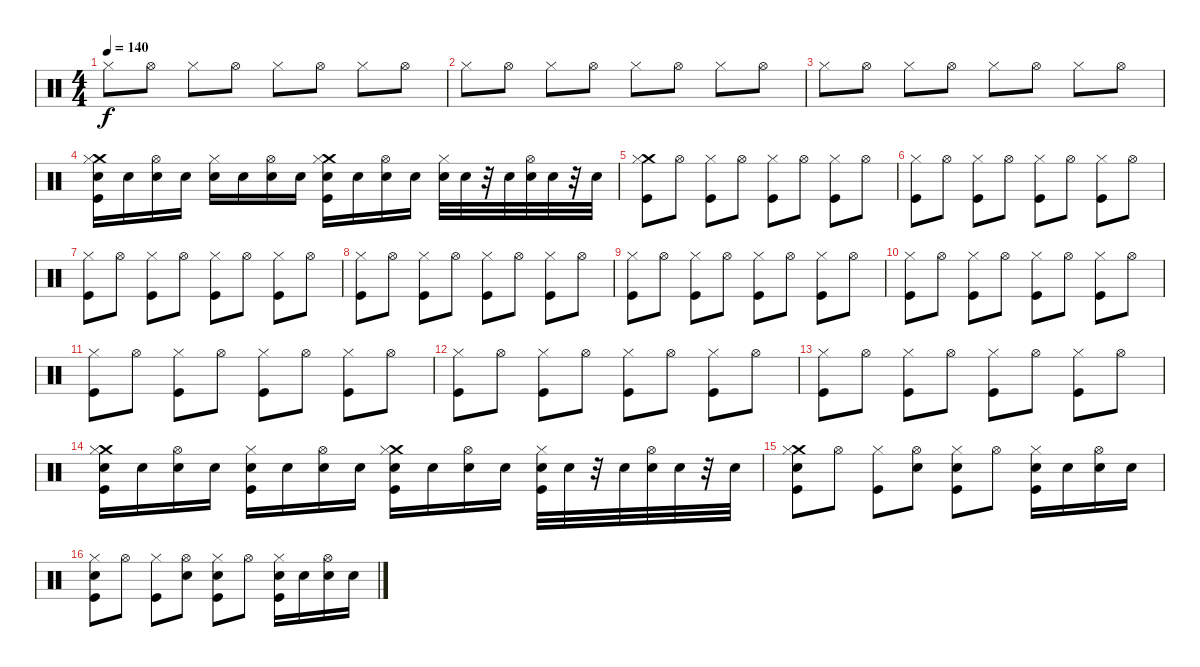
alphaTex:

\track "" {instrument percussion}
\staff {score}
\articulation defaults
\ts (4 4)
\tempo 140
\clef neutral
\ks c "Hi-Hat (closed)".8{dy f} "Hi-Hat (open)".8 "Hi-Hat (closed)".8 "Hi-Hat (open)".8 "Hi-Hat (closed)".8 "Hi-Hat (open)".8 "Hi-Hat (closed)".8 "Hi-Hat (open)".8
|
"Hi-Hat (closed)".8 "Hi-Hat (open)".8 "Hi-Hat (closed)".8 "Hi-Hat (open)".8 "Hi-Hat (closed)".8 "Hi-Hat (open)".8 "Hi-Hat (closed)".8 "Hi-Hat (open)".8 |
"Hi-Hat (closed)".8 "Hi-Hat (open)".8 "Hi-Hat (closed)".8 "Hi-Hat (open)".8 "Hi-Hat (closed)".8 "Hi-Hat (open)".8 "Hi-Hat (closed)".8 "Hi-Hat (open)".8 |
("Kick (hit)" "Crash medium (hit)" "Snare (hit) 2" "Hi-Hat (closed)").16 "Snare (hit) 2".16 ("Snare (hit) 2" "Hi-Hat (open)").16 "Snare (hit) 2".16 ("Snare (hit) 2" "Hi-Hat (closed)").16 "Snare (hit) 2".16 ("Snare (hit) 2" "Hi-Hat (open)").16 "Snare (hit) 2".16 ("Kick (hit)" "Crash medium (hit)" "Snare (hit) 2" "Hi-Hat (closed)").16 "Snare (hit) 2".16 ("Snare (hit) 2" "Hi-Hat (open)").16 "Snare (hit) 2".16 ("Snare (hit) 2" "Hi-Hat (closed)").32 "Snare (hit) 2".32 r.32 "Snare (hit) 2".32 ("Snare (hit) 2" "Hi-Hat (open)").32 "Snare (hit) 2".32 r.32 "Snare (hit) 2".32 |
("Crash medium (hit)" "Hi-Hat (closed)" "Kick (hit)").8 "Hi-Hat (open)".8 ("Hi-Hat (closed)" "Kick (hit)").8 "Hi-Hat (open)".8 ("Hi-Hat (closed)" "Kick (hit)").8 "Hi-Hat (open)".8 ("Hi-Hat (closed)" "Kick (hit)").8 "Hi-Hat (open)".8 |
("Hi-Hat (closed)" "Kick (hit)").8 "Hi-Hat (open)".8 ("Hi-Hat (closed)" "Kick (hit)").8 "Hi-Hat (open)".8 ("Hi-Hat (closed)" "Kick (hit)").8 "Hi-Hat (open)".8 ("Hi-Hat (closed)" "Kick (hit)").8 "Hi-Hat (open)".8 |
("Hi-Hat (closed)" "Kick (hit)").8 "Hi-Hat (open)".8 ("Hi-Hat (closed)" "Kick (hit)").8 "Hi-Hat (open)".8 ("Hi-Hat (closed)" "Kick (hit)").8 "Hi-Hat (open)".8 ("Hi-Hat (closed)" "Kick (hit)").8 "Hi-Hat (open)".8 |
("Hi-Hat (closed)" "Kick (hit)").8 "Hi-Hat (open)".8 ("Hi-Hat (closed)" "Kick (hit)").8 "Hi-Hat (open)".8 ("Hi-Hat (closed)" "Kick (hit)").8 "Hi-Hat (open)".8 ("Hi-Hat (closed)" "Kick (hit)").8 "Hi-Hat (open)".8 |
("Hi-Hat (closed)" "Kick (hit)").8 "Hi-Hat (open)".8 ("Hi-Hat (closed)" "Kick (hit)").8 "Hi-Hat (open)".8 ("Hi-Hat (closed)" "Kick (hit)").8 "Hi-Hat (open)".8 ("Hi-Hat (closed)" "Kick (hit)").8 "Hi-Hat (open)".8 |
("Hi-Hat (closed)" "Kick (hit)").8 "Hi-Hat (open)".8 ("Hi-Hat (closed)" "Kick (hit)").8 "Hi-Hat (open)".8 ("Hi-Hat (closed)" "Kick (hit)").8 "Hi-Hat (open)".8 ("Hi-Hat (closed)" "Kick (hit)").8 "Hi-Hat (open)".8 |
("Hi-Hat (closed)" "Kick (hit)").8 "Hi-Hat (open)".8 ("Hi-Hat (closed)" "Kick (hit)").8 "Hi-Hat (open)".8 ("Hi-Hat (closed)" "Kick (hit)").8 "Hi-Hat (open)".8 ("Hi-Hat (closed)" "Kick (hit)").8 "Hi-Hat (open)".8 |
("Hi-Hat (closed)" "Kick (hit)").8 "Hi-Hat (open)".8 ("Hi-Hat (closed)" "Kick (hit)").8 "Hi-Hat (open)".8 ("Hi-Hat (closed)" "Kick (hit)").8 "Hi-Hat (open)".8 ("Hi-Hat (closed)" "Kick (hit)").8 "Hi-Hat (open)".8 |
("Hi-Hat (closed)" "Kick (hit)").8 "Hi-Hat (open)".8 ("Hi-Hat (closed)" "Kick (hit)").8 "Hi-Hat (open)".8 ("Hi-Hat (closed)" "Kick (hit)").8 "Hi-Hat (open)".8 ("Hi-Hat (closed)" "Kick (hit)").8 "Hi-Hat (open)".8 |
("Crash medium (hit)" "Hi-Hat (closed)" "Kick (hit)" "Snare (hit) 2").16 "Snare (hit) 2".16 ("Hi-Hat (open)" "Snare (hit) 2").16 "Snare (hit) 2".16 ("Hi-Hat (closed)" "Kick (hit)" "Snare (hit) 2").16 "Snare (hit) 2".16 ("Hi-Hat (open)" "Snare (hit) 2").16 "Snare (hit) 2".16 ("Crash medium (hit)" "Hi-Hat (closed)" "Kick (hit)" "Snare (hit) 2").16 "Snare (hit) 2".16 ("Hi-Hat (open)" "Snare (hit) 2").16 "Snare (hit) 2".16 ("Hi-Hat (closed)" "Kick (hit)" "Snare (hit) 2").32 "Snare (hit) 2".32 r.32 "Snare (hit) 2".32 ("Hi-Hat (open)" "Snare (hit) 2").32 "Snare (hit) 2".32 r.32 "Snare (hit) 2".32 |
("Crash medium (hit)" "Hi-Hat (closed)" "Kick (hit)" "Snare (hit) 2").8 "Hi-Hat (open)".8 ("Hi-Hat (closed)" "Kick (hit)").8 ("Hi-Hat (open)" "Snare (hit) 2").8 ("Hi-Hat (closed)" "Kick (hit)" "Snare (hit) 2").8 "Hi-Hat (open)".8 ("Hi-Hat (closed)" "Kick (hit)" "Snare (hit) 2").16 "Snare (hit) 2".16 ("Hi-Hat (open)" "Snare (hit) 2").16 "Snare (hit) 2".16 |
("Hi-Hat (closed)" "Kick (hit)" "Snare (hit) 2").8 "Hi-Hat (open)".8 ("Hi-Hat (closed)" "Kick (hit)").8 ("Hi-Hat (open)" "Snare (hit) 2").8 ("Hi-Hat (closed)" "Kick (hit)" "Snare (hit) 2").8 "Hi-Hat (open)".8 ("Hi-Hat (closed)" "Kick (hit)" "Snare (hit) 2").16 "Snare (hit) 2".16 ("Hi-Hat (open)" "Snare (hit) 2").16 "Snare (hit) 2".16
